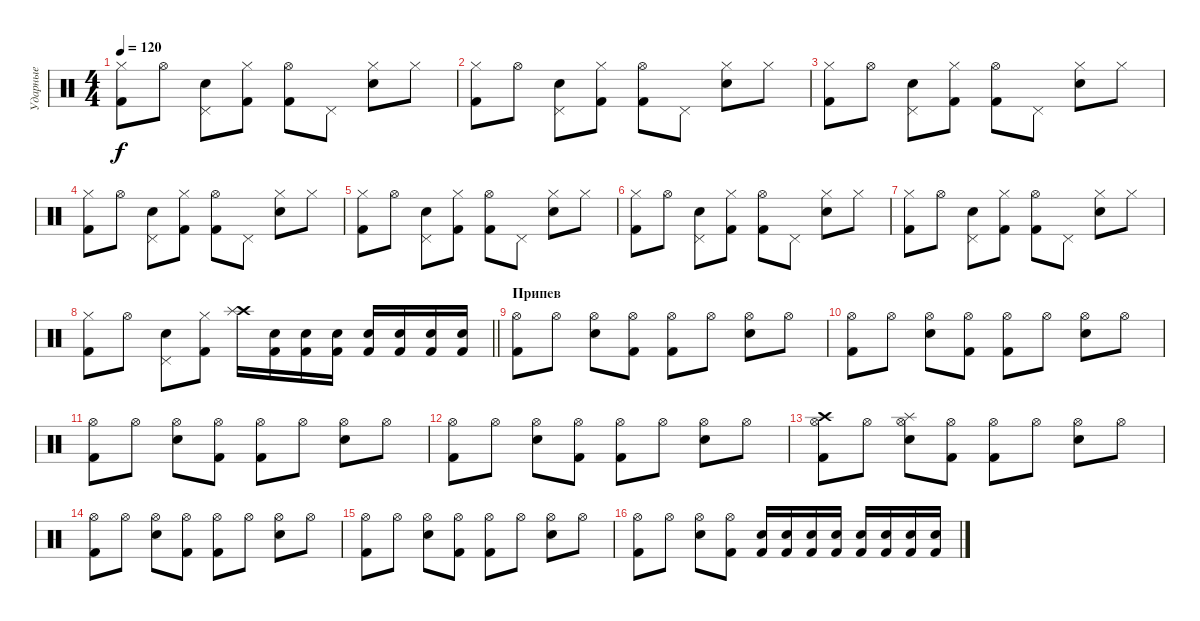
\track ("Ударные" "Ударные") {instrument percussion}
\staff {score}
\articulation defaults
\ts (4 4)
\tempo 120
\clef neutral
\ks c
("Hi-Hat (closed)" "Kick (hit) 2").8{dy f} "Hi-Hat (open)".8 ("Pedal Hi-Hat (hit)" "Snare (hit) 2").8 ("Hi-Hat (closed)" "Kick (hit) 2").8 ("Hi-Hat (open)" "Kick (hit) 2").8 "Pedal Hi-Hat (hit)".8 ("Hi-Hat (closed)" "Snare (hit) 2").8 "Hi-Hat (closed)".8 |
("Hi-Hat (closed)" "Kick (hit) 2").8 "Hi-Hat (open)".8 ("Pedal Hi-Hat (hit)" "Snare (hit) 2").8 ("Hi-Hat (closed)" "Kick (hit) 2").8 ("Hi-Hat (open)" "Kick (hit) 2").8 "Pedal Hi-Hat (hit)".8 ("Hi-Hat (closed)" "Snare (hit) 2").8 "Hi-Hat (closed)".8 |
("Hi-Hat (closed)" "Kick (hit) 2").8 "Hi-Hat (open)".8 ("Pedal Hi-Hat (hit)" "Snare (hit) 2").8 ("Hi-Hat (closed)" "Kick (hit) 2").8 ("Hi-Hat (open)" "Kick (hit) 2").8 "Pedal Hi-Hat (hit)".8 ("Hi-Hat (closed)" "Snare (hit) 2").8 "Hi-Hat (closed)".8 |
("Hi-Hat (closed)" "Kick (hit) 2").8 "Hi-Hat (open)".8 ("Pedal Hi-Hat (hit)" "Snare (hit) 2").8 ("Hi-Hat (closed)" "Kick (hit) 2").8 ("Hi-Hat (open)" "Kick (hit) 2").8 "Pedal Hi-Hat (hit)".8 ("Hi-Hat (closed)" "Snare (hit) 2").8 "Hi-Hat (closed)".8 |
("Hi-Hat (closed)" "Kick (hit) 2").8 "Hi-Hat (open)".8 ("Pedal Hi-Hat (hit)" "Snare (hit) 2").8 ("Hi-Hat (closed)" "Kick (hit) 2").8 ("Hi-Hat (open)" "Kick (hit) 2").8 "Pedal Hi-Hat (hit)".8 ("Hi-Hat (closed)" "Snare (hit) 2").8 "Hi-Hat (closed)".8 |
("Hi-Hat (closed)" "Kick (hit) 2").8 "Hi-Hat (open)".8 ("Pedal Hi-Hat (hit)" "Snare (hit) 2").8 ("Hi-Hat (closed)" "Kick (hit) 2").8 ("Hi-Hat (open)" "Kick (hit) 2").8 "Pedal Hi-Hat (hit)".8 ("Hi-Hat (closed)" "Snare (hit) 2").8 "Hi-Hat (closed)".8 |
("Hi-Hat (closed)" "Kick (hit) 2").8 "Hi-Hat (open)".8 ("Pedal Hi-Hat (hit)" "Snare (hit) 2").8 ("Hi-Hat (closed)" "Kick (hit) 2").8 ("Hi-Hat (open)" "Kick (hit) 2").8 "Pedal Hi-Hat (hit)".8 ("Hi-Hat (closed)" "Snare (hit) 2").8 "Hi-Hat (closed)".8 |
\barLineRight lightlight
("Hi-Hat (closed)" "Kick (hit) 2").8 "Hi-Hat (open)".8 ("Pedal Hi-Hat (hit)" "Snare (hit) 2").8 ("Hi-Hat (closed)" "Kick (hit) 2").8 ("Crash high (hit)" "Splash (hit)").16 ("Snare (hit) 2" "Kick (hit) 2").16 ("Snare (hit) 2" "Kick (hit) 2").16 ("Snare (hit) 2" "Kick (hit) 2").16 ("Snare (hit) 2" "Kick (hit) 2").16 ("Snare (hit) 2" "Kick (hit) 2").16 ("Snare (hit) 2" "Kick (hit) 2").16 ("Snare (hit) 2" "Kick (hit) 2").16 |
\section ("" "Припев")
("Hi-Hat (open)" "Kick (hit) 2").8 "Hi-Hat (open)".8 ("Hi-Hat (open)" "Snare (hit) 2").8 ("Hi-Hat (open)" "Kick (hit) 2").8 ("Hi-Hat (open)" "Kick (hit) 2").8 "Hi-Hat (open)".8 ("Hi-Hat (open)" "Snare (hit) 2").8 "Hi-Hat (open)".8 |
("Hi-Hat (open)" "Kick (hit) 2").8 "Hi-Hat (open)".8 ("Hi-Hat (open)" "Snare (hit) 2").8 ("Hi-Hat (open)" "Kick (hit) 2").8 ("Hi-Hat (open)" "Kick (hit) 2").8 "Hi-Hat (open)".8 ("Hi-Hat (open)" "Snare (hit) 2").8 "Hi-Hat (open)".8 |
("Hi-Hat (open)" "Kick (hit) 2").8 "Hi-Hat (open)".8 ("Hi-Hat (open)" "Snare (hit) 2").8 ("Hi-Hat (open)" "Kick (hit) 2").8 ("Hi-Hat (open)" "Kick (hit) 2").8 "Hi-Hat (open)".8 ("Hi-Hat (open)" "Snare (hit) 2").8 "Hi-Hat (open)".8 |
("Hi-Hat (open)" "Kick (hit) 2").8 "Hi-Hat (open)".8 ("Hi-Hat (open)" "Snare (hit) 2").8 ("Hi-Hat (open)" "Kick (hit) 2").8 ("Hi-Hat (open)" "Kick (hit) 2").8 "Hi-Hat (open)".8 ("Hi-Hat (open)" "Snare (hit) 2").8 "Hi-Hat (open)".8 |
("Crash high (hit)" "Hi-Hat (open)" "Kick (hit) 2").8 "Hi-Hat (open)".8 ("Splash (hit)" "Hi-Hat (open)" "Snare (hit) 2").8 ("Hi-Hat (open)" "Kick (hit) 2").8 ("Hi-Hat (open)" "Kick (hit) 2").8 "Hi-Hat (open)".8 ("Hi-Hat (open)" "Snare (hit) 2").8 "Hi-Hat (open)".8 |
("Hi-Hat (open)" "Kick (hit) 2").8 "Hi-Hat (open)".8 ("Hi-Hat (open)" "Snare (hit) 2").8 ("Hi-Hat (open)" "Kick (hit) 2").8 ("Hi-Hat (open)" "Kick (hit) 2").8 "Hi-Hat (open)".8 ("Hi-Hat (open)" "Snare (hit) 2").8 "Hi-Hat (open)".8 |
("Hi-Hat (open)" "Kick (hit) 2").8 "Hi-Hat (open)".8 ("Hi-Hat (open)" "Snare (hit) 2").8 ("Hi-Hat (open)" "Kick (hit) 2").8 ("Hi-Hat (open)" "Kick (hit) 2").8 "Hi-Hat (open)".8 ("Hi-Hat (open)" "Snare (hit) 2").8 "Hi-Hat (open)".8 |
("Hi-Hat (open)" "Kick (hit) 2").8 "Hi-Hat (open)".8 ("Hi-Hat (open)" "Snare (hit) 2").8 ("Hi-Hat (open)" "Kick (hit) 2").8 ("Snare (hit) 2" "Kick (hit) 2").16 ("Snare (hit) 2" "Kick (hit) 2").16 ("Snare (hit) 2" "Kick (hit) 2").16 ("Snare (hit) 2" "Kick (hit) 2").16 ("Snare (hit) 2" "Kick (hit) 2").16 ("Snare (hit) 2" "Kick (hit) 2").16 ("Snare (hit) 2" "Kick (hit) 2").16 ("Snare (hit) 2" "Kick (hit) 2").16
